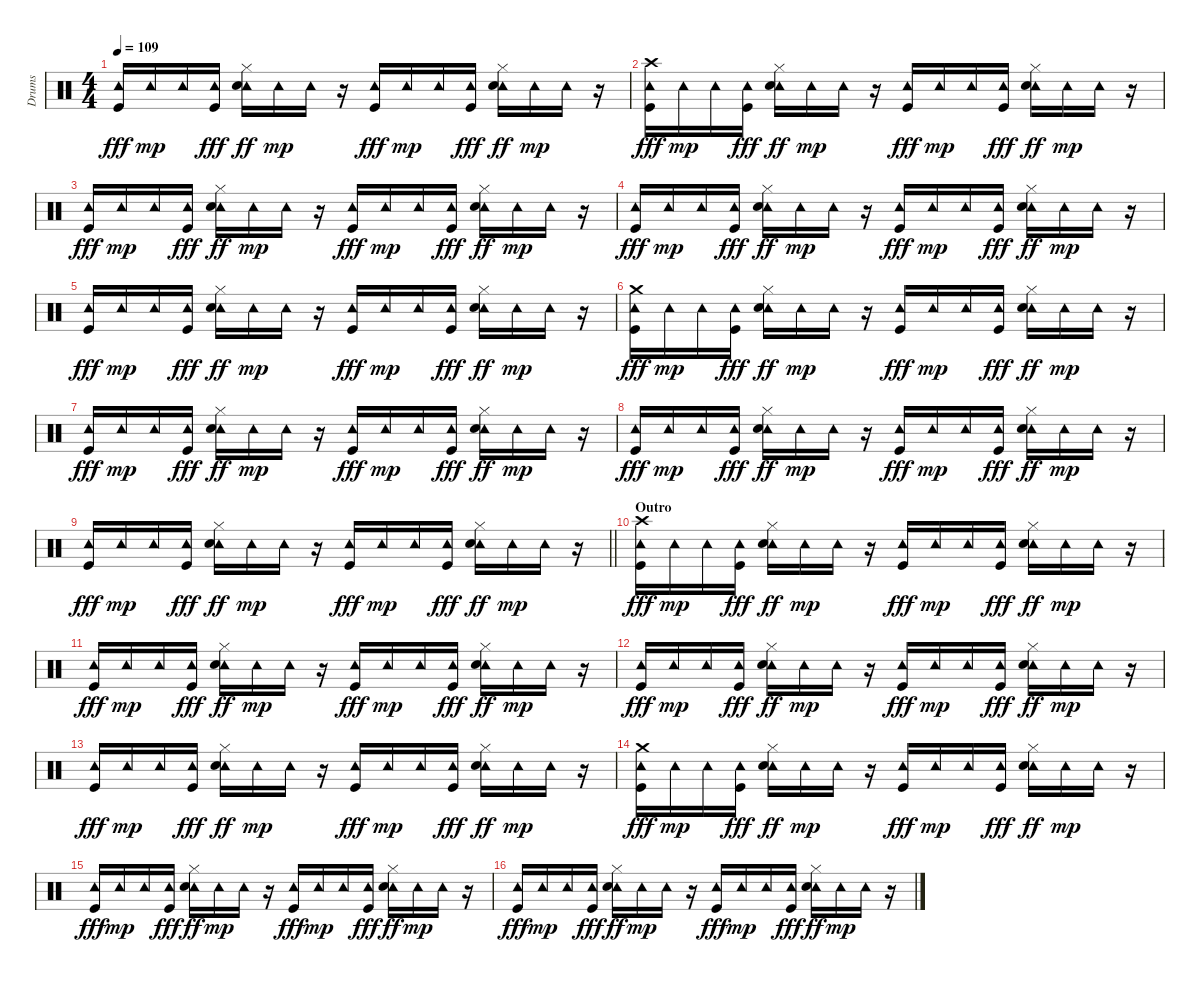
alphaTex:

\track ("Drums" "Drums") {instrument percussion}
\staff {score}
\articulation defaults
\ts (4 4)
\tempo 109
\clef neutral
\ks c
("Tambourine (hit)" "Kick (hit)").16{dy fff} "Tambourine (hit)".16{dy mp} "Tambourine (hit)".16 ("Tambourine (hit)" "Kick (hit)").16{dy fff} ("Tambourine (hit)" "Hi-Hat (closed)" "Electric Snare (hit)").16{dy ff} "Tambourine (hit)".16{dy mp} "Tambourine (hit)".16 r.16 ("Tambourine (hit)" "Kick (hit)").16{dy fff} "Tambourine (hit)".16{dy mp} "Tambourine (hit)".16 ("Tambourine (hit)" "Kick (hit)").16{dy fff} ("Tambourine (hit)" "Hi-Hat (closed)" "Electric Snare (hit)").16{dy ff} "Tambourine (hit)".16{dy mp} "Tambourine (hit)".16 r.16 |
("Crash high (hit)" "Tambourine (hit)" "Kick (hit)").16{dy fff} "Tambourine (hit)".16{dy mp} "Tambourine (hit)".16 ("Tambourine (hit)" "Kick (hit)").16{dy fff} ("Tambourine (hit)" "Hi-Hat (closed)" "Electric Snare (hit)").16{dy ff} "Tambourine (hit)".16{dy mp} "Tambourine (hit)".16 r.16 ("Tambourine (hit)" "Kick (hit)").16{dy fff} "Tambourine (hit)".16{dy mp} "Tambourine (hit)".16 ("Tambourine (hit)" "Kick (hit)").16{dy fff} ("Tambourine (hit)" "Hi-Hat (closed)" "Electric Snare (hit)").16{dy ff} "Tambourine (hit)".16{dy mp} "Tambourine (hit)".16 r.16 |
("Tambourine (hit)" "Kick (hit)").16{dy fff} "Tambourine (hit)".16{dy mp} "Tambourine (hit)".16 ("Tambourine (hit)" "Kick (hit)").16{dy fff} ("Tambourine (hit)" "Hi-Hat (closed)" "Electric Snare (hit)").16{dy ff} "Tambourine (hit)".16{dy mp} "Tambourine (hit)".16 r.16 ("Tambourine (hit)" "Kick (hit)").16{dy fff} "Tambourine (hit)".16{dy mp} "Tambourine (hit)".16 ("Tambourine (hit)" "Kick (hit)").16{dy fff} ("Tambourine (hit)" "Hi-Hat (closed)" "Electric Snare (hit)").16{dy ff} "Tambourine (hit)".16{dy mp} "Tambourine (hit)".16 r.16 |
("Tambourine (hit)" "Kick (hit)").16{dy fff} "Tambourine (hit)".16{dy mp} "Tambourine (hit)".16 ("Tambourine (hit)" "Kick (hit)").16{dy fff} ("Tambourine (hit)" "Hi-Hat (closed)" "Electric Snare (hit)").16{dy ff} "Tambourine (hit)".16{dy mp} "Tambourine (hit)".16 r.16 ("Tambourine (hit)" "Kick (hit)").16{dy fff} "Tambourine (hit)".16{dy mp} "Tambourine (hit)".16 ("Tambourine (hit)" "Kick (hit)").16{dy fff} ("Tambourine (hit)" "Hi-Hat (closed)" "Electric Snare (hit)").16{dy ff} "Tambourine (hit)".16{dy mp} "Tambourine (hit)".16 r.16 |
("Tambourine (hit)" "Kick (hit)").16{dy fff} "Tambourine (hit)".16{dy mp} "Tambourine (hit)".16 ("Tambourine (hit)" "Kick (hit)").16{dy fff} ("Tambourine (hit)" "Hi-Hat (closed)" "Electric Snare (hit)").16{dy ff} "Tambourine (hit)".16{dy mp} "Tambourine (hit)".16 r.16 ("Tambourine (hit)" "Kick (hit)").16{dy fff} "Tambourine (hit)".16{dy mp} "Tambourine (hit)".16 ("Tambourine (hit)" "Kick (hit)").16{dy fff} ("Tambourine (hit)" "Hi-Hat (closed)" "Electric Snare (hit)").16{dy ff} "Tambourine (hit)".16{dy mp} "Tambourine (hit)".16 r.16 |
("Crash medium (hit)" "Tambourine (hit)" "Kick (hit)").16{dy fff} "Tambourine (hit)".16{dy mp} "Tambourine (hit)".16 ("Tambourine (hit)" "Kick (hit)").16{dy fff} ("Tambourine (hit)" "Hi-Hat (closed)" "Electric Snare (hit)").16{dy ff} "Tambourine (hit)".16{dy mp} "Tambourine (hit)".16 r.16 ("Tambourine (hit)" "Kick (hit)").16{dy fff} "Tambourine (hit)".16{dy mp} "Tambourine (hit)".16 ("Tambourine (hit)" "Kick (hit)").16{dy fff} ("Tambourine (hit)" "Hi-Hat (closed)" "Electric Snare (hit)").16{dy ff} "Tambourine (hit)".16{dy mp} "Tambourine (hit)".16 r.16 |
("Tambourine (hit)" "Kick (hit)").16{dy fff} "Tambourine (hit)".16{dy mp} "Tambourine (hit)".16 ("Tambourine (hit)" "Kick (hit)").16{dy fff} ("Tambourine (hit)" "Hi-Hat (closed)" "Electric Snare (hit)").16{dy ff} "Tambourine (hit)".16{dy mp} "Tambourine (hit)".16 r.16 ("Tambourine (hit)" "Kick (hit)").16{dy fff} "Tambourine (hit)".16{dy mp} "Tambourine (hit)".16 ("Tambourine (hit)" "Kick (hit)").16{dy fff} ("Tambourine (hit)" "Hi-Hat (closed)" "Electric Snare (hit)").16{dy ff} "Tambourine (hit)".16{dy mp} "Tambourine (hit)".16 r.16 |
("Tambourine (hit)" "Kick (hit)").16{dy fff} "Tambourine (hit)".16{dy mp} "Tambourine (hit)".16 ("Tambourine (hit)" "Kick (hit)").16{dy fff} ("Tambourine (hit)" "Hi-Hat (closed)" "Electric Snare (hit)").16{dy ff} "Tambourine (hit)".16{dy mp} "Tambourine (hit)".16 r.16 ("Tambourine (hit)" "Kick (hit)").16{dy fff} "Tambourine (hit)".16{dy mp} "Tambourine (hit)".16 ("Tambourine (hit)" "Kick (hit)").16{dy fff} ("Tambourine (hit)" "Hi-Hat (closed)" "Electric Snare (hit)").16{dy ff} "Tambourine (hit)".16{dy mp} "Tambourine (hit)".16 r.16 |
\barLineRight lightlight
("Tambourine (hit)" "Kick (hit)").16{dy fff} "Tambourine (hit)".16{dy mp} "Tambourine (hit)".16 ("Tambourine (hit)" "Kick (hit)").16{dy fff} ("Tambourine (hit)" "Hi-Hat (closed)" "Electric Snare (hit)").16{dy ff} "Tambourine (hit)".16{dy mp} "Tambourine (hit)".16 r.16 ("Tambourine (hit)" "Kick (hit)").16{dy fff} "Tambourine (hit)".16{dy mp} "Tambourine (hit)".16 ("Tambourine (hit)" "Kick (hit)").16{dy fff} ("Tambourine (hit)" "Hi-Hat (closed)" "Electric Snare (hit)").16{dy ff} "Tambourine (hit)".16{dy mp} "Tambourine (hit)".16 r.16 |
\section ("" "Outro")
("Crash high (hit)" "Tambourine (hit)" "Kick (hit)").16{dy fff} "Tambourine (hit)".16{dy mp} "Tambourine (hit)".16 ("Tambourine (hit)" "Kick (hit)").16{dy fff} ("Tambourine (hit)" "Hi-Hat (closed)" "Electric Snare (hit)").16{dy ff} "Tambourine (hit)".16{dy mp} "Tambourine (hit)".16 r.16 ("Tambourine (hit)" "Kick (hit)").16{dy fff} "Tambourine (hit)".16{dy mp} "Tambourine (hit)".16 ("Tambourine (hit)" "Kick (hit)").16{dy fff} ("Tambourine (hit)" "Hi-Hat (closed)" "Electric Snare (hit)").16{dy ff} "Tambourine (hit)".16{dy mp} "Tambourine (hit)".16 r.16 |
("Tambourine (hit)" "Kick (hit)").16{dy fff} "Tambourine (hit)".16{dy mp} "Tambourine (hit)".16 ("Tambourine (hit)" "Kick (hit)").16{dy fff} ("Tambourine (hit)" "Hi-Hat (closed)" "Electric Snare (hit)").16{dy ff} "Tambourine (hit)".16{dy mp} "Tambourine (hit)".16 r.16 ("Tambourine (hit)" "Kick (hit)").16{dy fff} "Tambourine (hit)".16{dy mp} "Tambourine (hit)".16 ("Tambourine (hit)" "Kick (hit)").16{dy fff} ("Tambourine (hit)" "Hi-Hat (closed)" "Electric Snare (hit)").16{dy ff} "Tambourine (hit)".16{dy mp} "Tambourine (hit)".16 r.16 |
("Tambourine (hit)" "Kick (hit)").16{dy fff} "Tambourine (hit)".16{dy mp} "Tambourine (hit)".16 ("Tambourine (hit)" "Kick (hit)").16{dy fff} ("Tambourine (hit)" "Hi-Hat (closed)" "Electric Snare (hit)").16{dy ff} "Tambourine (hit)".16{dy mp} "Tambourine (hit)".16 r.16 ("Tambourine (hit)" "Kick (hit)").16{dy fff} "Tambourine (hit)".16{dy mp} "Tambourine (hit)".16 ("Tambourine (hit)" "Kick (hit)").16{dy fff} ("Tambourine (hit)" "Hi-Hat (closed)" "Electric Snare (hit)").16{dy ff} "Tambourine (hit)".16{dy mp} "Tambourine (hit)".16 r.16 |
("Tambourine (hit)" "Kick (hit)").16{dy fff} "Tambourine (hit)".16{dy mp} "Tambourine (hit)".16 ("Tambourine (hit)" "Kick (hit)").16{dy fff} ("Tambourine (hit)" "Hi-Hat (closed)" "Electric Snare (hit)").16{dy ff} "Tambourine (hit)".16{dy mp} "Tambourine (hit)".16 r.16 ("Tambourine (hit)" "Kick (hit)").16{dy fff} "Tambourine (hit)".16{dy mp} "Tambourine (hit)".16 ("Tambourine (hit)" "Kick (hit)").16{dy fff} ("Tambourine (hit)" "Hi-Hat (closed)" "Electric Snare (hit)").16{dy ff} "Tambourine (hit)".16{dy mp} "Tambourine (hit)".16 r.16 |
("Crash medium (hit)" "Tambourine (hit)" "Kick (hit)").16{dy fff} "Tambourine (hit)".16{dy mp} "Tambourine (hit)".16 ("Tambourine (hit)" "Kick (hit)").16{dy fff} ("Tambourine (hit)" "Hi-Hat (closed)" "Electric Snare (hit)").16{dy ff} "Tambourine (hit)".16{dy mp} "Tambourine (hit)".16 r.16 ("Tambourine (hit)" "Kick (hit)").16{dy fff} "Tambourine (hit)".16{dy mp} "Tambourine (hit)".16 ("Tambourine (hit)" "Kick (hit)").16{dy fff} ("Tambourine (hit)" "Hi-Hat (closed)" "Electric Snare (hit)").16{dy ff} "Tambourine (hit)".16{dy mp} "Tambourine (hit)".16 r.16 |
("Tambourine (hit)" "Kick (hit)").16{dy fff} "Tambourine (hit)".16{dy mp} "Tambourine (hit)".16 ("Tambourine (hit)" "Kick (hit)").16{dy fff} ("Tambourine (hit)" "Hi-Hat (closed)" "Electric Snare (hit)").16{dy ff} "Tambourine (hit)".16{dy mp} "Tambourine (hit)".16 r.16 ("Tambourine (hit)" "Kick (hit)").16{dy fff} "Tambourine (hit)".16{dy mp} "Tambourine (hit)".16 ("Tambourine (hit)" "Kick (hit)").16{dy fff} ("Tambourine (hit)" "Hi-Hat (closed)" "Electric Snare (hit)").16{dy ff} "Tambourine (hit)".16{dy mp} "Tambourine (hit)".16 r.16 |
("Tambourine (hit)" "Kick (hit)").16{dy fff} "Tambourine (hit)".16{dy mp} "Tambourine (hit)".16 ("Tambourine (hit)" "Kick (hit)").16{dy fff} ("Tambourine (hit)" "Hi-Hat (closed)" "Electric Snare (hit)").16{dy ff} "Tambourine (hit)".16{dy mp} "Tambourine (hit)".16 r.16 ("Tambourine (hit)" "Kick (hit)").16{dy fff} "Tambourine (hit)".16{dy mp} "Tambourine (hit)".16 ("Tambourine (hit)" "Kick (hit)").16{dy fff} ("Tambourine (hit)" "Hi-Hat (closed)" "Electric Snare (hit)").16{dy ff} "Tambourine (hit)".16{dy mp} "Tambourine (hit)".16 r.16
